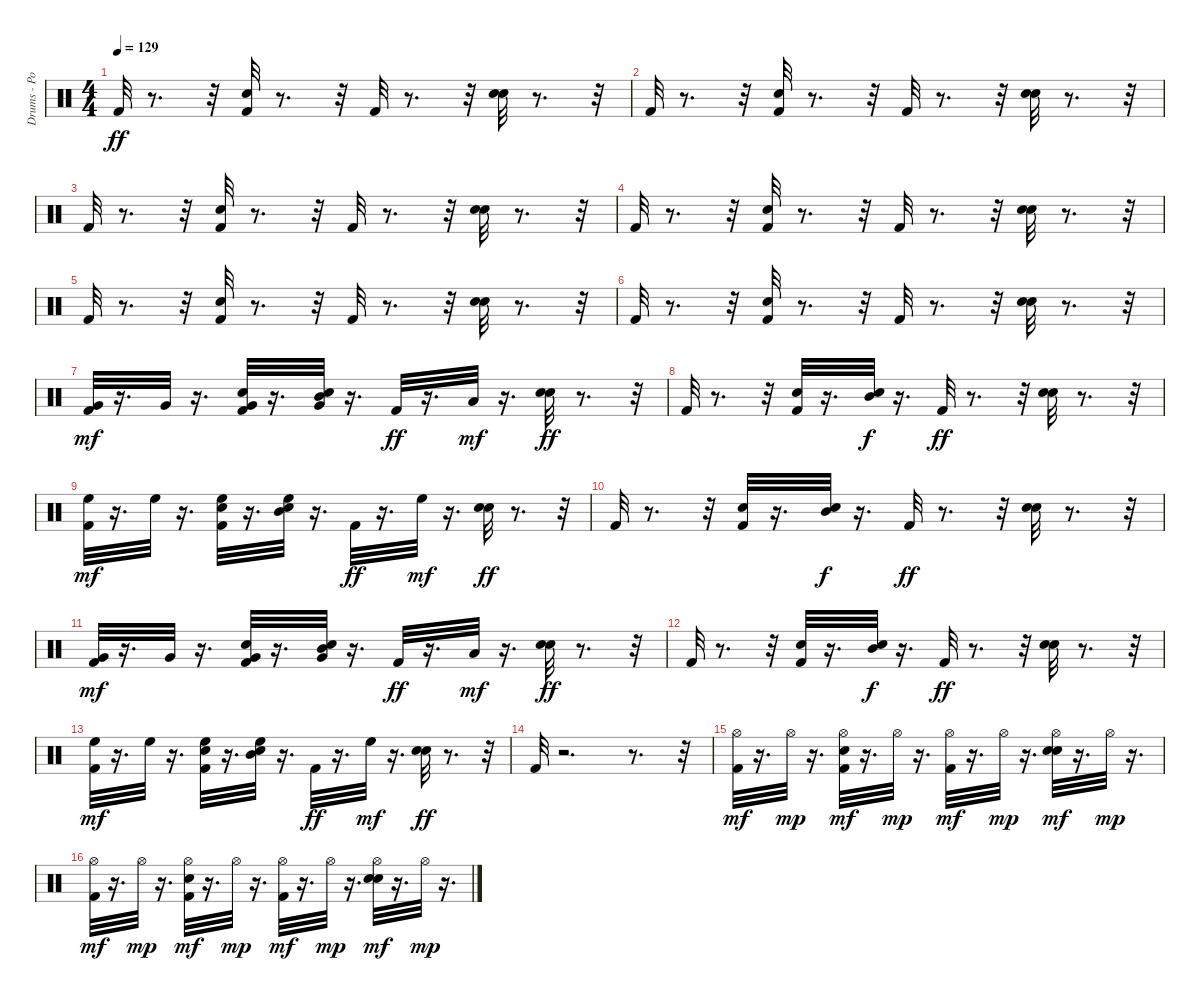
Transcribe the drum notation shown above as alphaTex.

\track ("Drums - Po" "Drums - Po") {instrument percussion}
\staff {score}
\articulation defaults
\ts (4 4)
\tempo 129
\clef neutral
\ks c "Kick (hit) 2".32{dy ff}
r.8{d} r.32 ("Kick (hit) 2" "Snare (hit) 2").32 r.8{d} r.32 "Kick (hit) 2".32 r.8{d} r.32 ("Snare (hit) 2" "Hand Clap (hit)").32 r.8{d} r.32 |
"Kick (hit) 2".32 r.8{d} r.32 ("Kick (hit) 2" "Snare (hit) 2").32 r.8{d} r.32 "Kick (hit) 2".32 r.8{d} r.32 ("Snare (hit) 2" "Hand Clap (hit)").32 r.8{d} r.32 |
"Kick (hit) 2".32 r.8{d} r.32 ("Kick (hit) 2" "Snare (hit) 2").32 r.8{d} r.32 "Kick (hit) 2".32 r.8{d} r.32 ("Snare (hit) 2" "Hand Clap (hit)").32 r.8{d} r.32 |
"Kick (hit) 2".32 r.8{d} r.32 ("Kick (hit) 2" "Snare (hit) 2").32 r.8{d} r.32 "Kick (hit) 2".32 r.8{d} r.32 ("Snare (hit) 2" "Hand Clap (hit)").32 r.8{d} r.32 |
"Kick (hit) 2".32 r.8{d} r.32 ("Kick (hit) 2" "Snare (hit) 2").32 r.8{d} r.32 "Kick (hit) 2".32 r.8{d} r.32 ("Snare (hit) 2" "Hand Clap (hit)").32 r.8{d} r.32 |
"Kick (hit) 2".32 r.8{d} r.32 ("Kick (hit) 2" "Snare (hit) 2").32 r.8{d} r.32 "Kick (hit) 2".32 r.8{d} r.32 ("Snare (hit) 2" "Hand Clap (hit)").32 r.8{d} r.32 |
("Kick (hit) 2" "Very Low Tom (hit)").32{dy mf} r.16{d} "Very Low Tom (hit)".32 r.16{d} ("Kick (hit) 2" "Snare (hit) 2" "Very Low Tom (hit)").32 r.16{d} ("Snare (hit) 2" "Very Low Tom (hit)" "Mid Tom (hit)").32 r.16{d} "Kick (hit) 2".32{dy ff} r.16{d} "Low Floor Tom (hit)".32{dy mf} r.16{d} ("Snare (hit) 2" "Hand Clap (hit)").32{dy ff} r.8{d} r.32 |
"Kick (hit) 2".32 r.8{d} r.32 ("Kick (hit) 2" "Snare (hit) 2").32 r.16{d} ("Snare (hit) 2" "Mid Tom (hit)").32{dy f} r.16{d} "Kick (hit) 2".32{dy ff} r.8{d} r.32 ("Snare (hit) 2" "Hand Clap (hit)").32 r.8{d} r.32 |
("Kick (hit) 2" "High Floor Tom (hit)").32{dy mf} r.16{d} "High Floor Tom (hit)".32 r.16{d} ("Kick (hit) 2" "Snare (hit) 2" "High Floor Tom (hit)").32 r.16{d} ("Snare (hit) 2" "Mid Tom (hit)" "High Floor Tom (hit)").32 r.16{d} "Kick (hit) 2".32{dy ff} r.16{d} "High Floor Tom (hit)".32{dy mf} r.16{d} ("Snare (hit) 2" "Hand Clap (hit)").32{dy ff} r.8{d} r.32 |
"Kick (hit) 2".32 r.8{d} r.32 ("Kick (hit) 2" "Snare (hit) 2").32 r.16{d} ("Snare (hit) 2" "Mid Tom (hit)").32{dy f} r.16{d} "Kick (hit) 2".32{dy ff} r.8{d} r.32 ("Snare (hit) 2" "Hand Clap (hit)").32 r.8{d} r.32 |
("Kick (hit) 2" "Very Low Tom (hit)").32{dy mf} r.16{d} "Very Low Tom (hit)".32 r.16{d} ("Kick (hit) 2" "Snare (hit) 2" "Very Low Tom (hit)").32 r.16{d} ("Snare (hit) 2" "Very Low Tom (hit)" "Mid Tom (hit)").32 r.16{d} "Kick (hit) 2".32{dy ff} r.16{d} "Low Floor Tom (hit)".32{dy mf} r.16{d} ("Snare (hit) 2" "Hand Clap (hit)").32{dy ff} r.8{d} r.32 |
"Kick (hit) 2".32 r.8{d} r.32 ("Kick (hit) 2" "Snare (hit) 2").32 r.16{d} ("Snare (hit) 2" "Mid Tom (hit)").32{dy f} r.16{d} "Kick (hit) 2".32{dy ff} r.8{d} r.32 ("Snare (hit) 2" "Hand Clap (hit)").32 r.8{d} r.32 |
("Kick (hit) 2" "High Floor Tom (hit)").32{dy mf} r.16{d} "High Floor Tom (hit)".32 r.16{d} ("Kick (hit) 2" "Snare (hit) 2" "High Floor Tom (hit)").32 r.16{d} ("Snare (hit) 2" "Mid Tom (hit)" "High Floor Tom (hit)").32 r.16{d} "Kick (hit) 2".32{dy ff} r.16{d} "High Floor Tom (hit)".32{dy mf} r.16{d} ("Snare (hit) 2" "Hand Clap (hit)").32{dy ff} r.8{d} r.32 |
"Kick (hit) 2".32 r.2{d} r.8{d} r.32 |
("Kick (hit) 2" "Hi-Hat (open)").32{dy mf} r.16{d} "Hi-Hat (open)".32{dy mp} r.16{d} ("Kick (hit) 2" "Snare (hit) 2" "Hi-Hat (open)").32{dy mf} r.16{d} "Hi-Hat (open)".32{dy mp} r.16{d} ("Kick (hit) 2" "Hi-Hat (open)").32{dy mf} r.16{d} "Hi-Hat (open)".32{dy mp} r.16{d} ("Snare (hit) 2" "Hand Clap (hit)" "Hi-Hat (open)").32{dy mf} r.16{d} "Hi-Hat (open)".32{dy mp} r.16{d} |
("Kick (hit) 2" "Hi-Hat (open)").32{dy mf} r.16{d} "Hi-Hat (open)".32{dy mp} r.16{d} ("Kick (hit) 2" "Snare (hit) 2" "Hi-Hat (open)").32{dy mf} r.16{d} "Hi-Hat (open)".32{dy mp} r.16{d} ("Kick (hit) 2" "Hi-Hat (open)").32{dy mf} r.16{d} "Hi-Hat (open)".32{dy mp} r.16{d} ("Snare (hit) 2" "Hand Clap (hit)" "Hi-Hat (open)").32{dy mf} r.16{d} "Hi-Hat (open)".32{dy mp} r.16{d}
